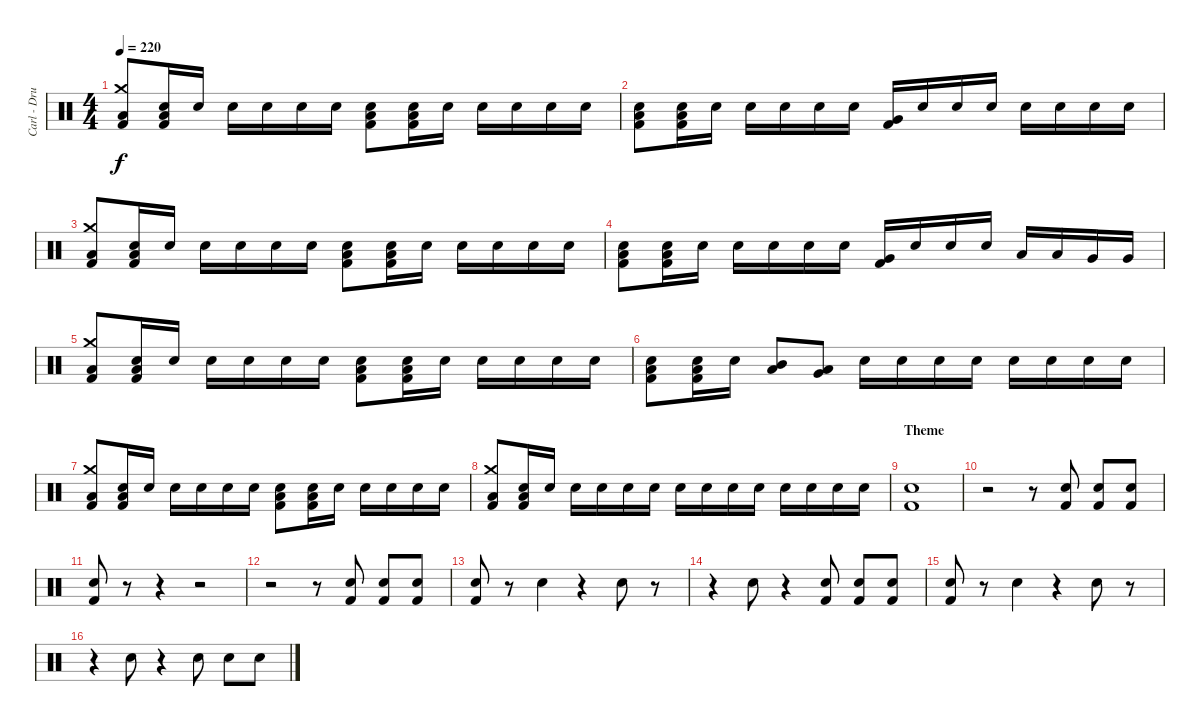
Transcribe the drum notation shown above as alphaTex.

\track ("Carl - Drums" "Carl - Dru") {instrument percussion}
\staff {score}
\articulation defaults
\ts (4 4)
\tempo 220
\clef neutral
\ks c
("Low Tom (hit)" "Crash medium (hit)" "Kick (hit) 2").8{dy f} ("Low Tom (hit)" "Electric Snare (hit)" "Kick (hit) 2").16 "Electric Snare (hit)".16 "Electric Snare (hit)".16 "Electric Snare (hit)".16 "Electric Snare (hit)".16 "Electric Snare (hit)".16 ("Low Tom (hit)" "Electric Snare (hit)" "Kick (hit) 2").8 ("Low Tom (hit)" "Electric Snare (hit)" "Kick (hit) 2").16 "Electric Snare (hit)".16 "Electric Snare (hit)".16 "Electric Snare (hit)".16 "Electric Snare (hit)".16 "Electric Snare (hit)".16 |
("Low Tom (hit)" "Electric Snare (hit)" "Kick (hit) 2").8 ("Low Tom (hit)" "Electric Snare (hit)" "Kick (hit) 2").16 "Electric Snare (hit)".16 "Electric Snare (hit)".16 "Electric Snare (hit)".16 "Electric Snare (hit)".16 "Electric Snare (hit)".16 ("Very Low Tom (hit)" "Kick (hit) 2").16 "Electric Snare (hit)".16 "Electric Snare (hit)".16 "Electric Snare (hit)".16 "Electric Snare (hit)".16 "Electric Snare (hit)".16 "Electric Snare (hit)".16 "Electric Snare (hit)".16 |
("Low Tom (hit)" "Crash medium (hit)" "Kick (hit) 2").8 ("Low Tom (hit)" "Electric Snare (hit)" "Kick (hit) 2").16 "Electric Snare (hit)".16 "Electric Snare (hit)".16 "Electric Snare (hit)".16 "Electric Snare (hit)".16 "Electric Snare (hit)".16 ("Low Tom (hit)" "Electric Snare (hit)" "Kick (hit) 2").8 ("Low Tom (hit)" "Electric Snare (hit)" "Kick (hit) 2").16 "Electric Snare (hit)".16 "Electric Snare (hit)".16 "Electric Snare (hit)".16 "Electric Snare (hit)".16 "Electric Snare (hit)".16 |
("Low Tom (hit)" "Electric Snare (hit)" "Kick (hit) 2").8 ("Low Tom (hit)" "Electric Snare (hit)" "Kick (hit) 2").16 "Electric Snare (hit)".16 "Electric Snare (hit)".16 "Electric Snare (hit)".16 "Electric Snare (hit)".16 "Electric Snare (hit)".16 ("Very Low Tom (hit)" "Kick (hit) 2").16 "Electric Snare (hit)".16 "Electric Snare (hit)".16 "Electric Snare (hit)".16 "Low Tom (hit)".16 "Low Tom (hit)".16 "Very Low Tom (hit)".16 "Very Low Tom (hit)".16 |
("Low Tom (hit)" "Crash medium (hit)" "Kick (hit) 2").8 ("Low Tom (hit)" "Electric Snare (hit)" "Kick (hit) 2").16 "Electric Snare (hit)".16 "Electric Snare (hit)".16 "Electric Snare (hit)".16 "Electric Snare (hit)".16 "Electric Snare (hit)".16 ("Low Tom (hit)" "Electric Snare (hit)" "Kick (hit) 2").8 ("Low Tom (hit)" "Electric Snare (hit)" "Kick (hit) 2").16 "Electric Snare (hit)".16 "Electric Snare (hit)".16 "Electric Snare (hit)".16 "Electric Snare (hit)".16 "Electric Snare (hit)".16 |
("Low Tom (hit)" "Electric Snare (hit)" "Kick (hit) 2").8 ("Low Tom (hit)" "Electric Snare (hit)" "Kick (hit) 2").16 "Electric Snare (hit)".16 ("Low Tom (hit)" "Mid Tom (hit)").8 ("Very Low Tom (hit)" "Low Tom (hit)").8 "Electric Snare (hit)".16 "Electric Snare (hit)".16 "Electric Snare (hit)".16 "Electric Snare (hit)".16 "Electric Snare (hit)".16 "Electric Snare (hit)".16 "Electric Snare (hit)".16 "Electric Snare (hit)".16 |
("Low Tom (hit)" "Crash medium (hit)" "Kick (hit) 2").8 ("Low Tom (hit)" "Electric Snare (hit)" "Kick (hit) 2").16 "Electric Snare (hit)".16 "Electric Snare (hit)".16 "Electric Snare (hit)".16 "Electric Snare (hit)".16 "Electric Snare (hit)".16 ("Low Tom (hit)" "Electric Snare (hit)" "Kick (hit) 2").8 ("Low Tom (hit)" "Electric Snare (hit)" "Kick (hit) 2").16 "Electric Snare (hit)".16 "Electric Snare (hit)".16 "Electric Snare (hit)".16 "Electric Snare (hit)".16 "Electric Snare (hit)".16 |
("Low Tom (hit)" "Crash medium (hit)" "Kick (hit) 2").8 ("Low Tom (hit)" "Electric Snare (hit)" "Kick (hit) 2").16 "Electric Snare (hit)".16 "Electric Snare (hit)".16 "Electric Snare (hit)".16 "Electric Snare (hit)".16 "Electric Snare (hit)".16 "Electric Snare (hit)".16 "Electric Snare (hit)".16 "Electric Snare (hit)".16 "Electric Snare (hit)".16 "Electric Snare (hit)".16 "Electric Snare (hit)".16 "Electric Snare (hit)".16 "Electric Snare (hit)".16 |
\section ("" "Theme")
("Electric Snare (hit)" "Kick (hit) 2").1 |
r.2 r.8 ("Electric Snare (hit)" "Kick (hit) 2").8 ("Electric Snare (hit)" "Kick (hit) 2").8 ("Electric Snare (hit)" "Kick (hit) 2").8 |
("Electric Snare (hit)" "Kick (hit) 2").8 r.8 r.4 r.2 |
r.2 r.8 ("Electric Snare (hit)" "Kick (hit) 2").8 ("Electric Snare (hit)" "Kick (hit) 2").8 ("Electric Snare (hit)" "Kick (hit) 2").8 |
("Electric Snare (hit)" "Kick (hit) 2").8 r.8 "Electric Snare (hit)".4 r.4 "Electric Snare (hit)".8 r.8 |
r.4 "Electric Snare (hit)".8 r.4 ("Electric Snare (hit)" "Kick (hit) 2").8 ("Electric Snare (hit)" "Kick (hit) 2").8 ("Electric Snare (hit)" "Kick (hit) 2").8 |
("Electric Snare (hit)" "Kick (hit) 2").8 r.8 "Electric Snare (hit)".4 r.4 "Electric Snare (hit)".8 r.8 |
r.4 "Electric Snare (hit)".8 r.4 "Electric Snare (hit)".8 "Electric Snare (hit)".8 "Electric Snare (hit)".8
